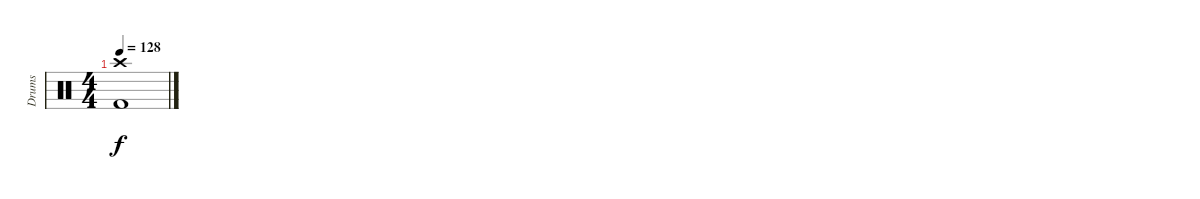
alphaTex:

\track ("Drums" "Drums") {instrument percussion}
\staff {score}
\articulation defaults
\ts (4 4)
\tempo 128
\clef neutral
\ks c
("Crash high (hit)" "Kick (hit) 2").1{dy f}
